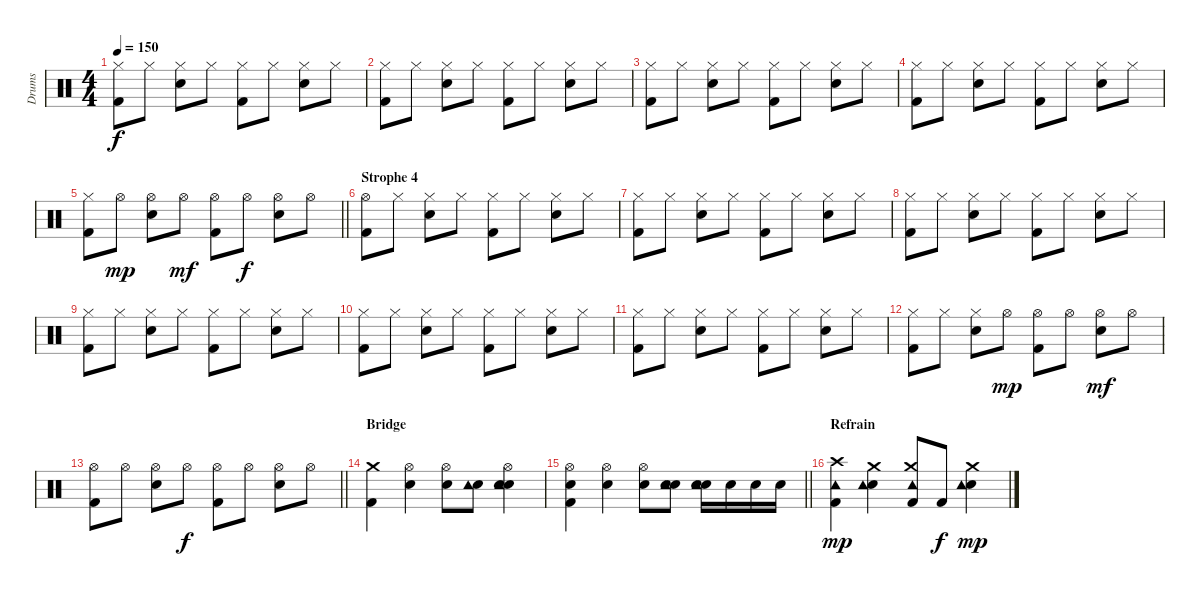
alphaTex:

\track ("Drums" "Drums") {instrument percussion}
\staff {score}
\articulation defaults
\ts (4 4)
\tempo 150
\clef neutral
\ks c
("Hi-Hat (closed)" "Kick (hit) 2").8{dy f} "Hi-Hat (closed)".8 ("Hi-Hat (closed)" "Snare (hit) 2").8 "Hi-Hat (closed)".8 ("Hi-Hat (closed)" "Kick (hit) 2").8 "Hi-Hat (closed)".8 ("Hi-Hat (closed)" "Snare (hit) 2").8 "Hi-Hat (closed)".8 |
("Hi-Hat (closed)" "Kick (hit) 2").8 "Hi-Hat (closed)".8 ("Hi-Hat (closed)" "Snare (hit) 2").8 "Hi-Hat (closed)".8 ("Hi-Hat (closed)" "Kick (hit) 2").8 "Hi-Hat (closed)".8 ("Hi-Hat (closed)" "Snare (hit) 2").8 "Hi-Hat (closed)".8 |
("Hi-Hat (closed)" "Kick (hit) 2").8 "Hi-Hat (closed)".8 ("Hi-Hat (closed)" "Snare (hit) 2").8 "Hi-Hat (closed)".8 ("Hi-Hat (closed)" "Kick (hit) 2").8 "Hi-Hat (closed)".8 ("Hi-Hat (closed)" "Snare (hit) 2").8 "Hi-Hat (closed)".8 |
("Hi-Hat (closed)" "Kick (hit) 2").8 "Hi-Hat (closed)".8 ("Hi-Hat (closed)" "Snare (hit) 2").8 "Hi-Hat (closed)".8 ("Hi-Hat (closed)" "Kick (hit) 2").8 "Hi-Hat (closed)".8 ("Hi-Hat (closed)" "Snare (hit) 2").8 "Hi-Hat (closed)".8 |
\barLineRight lightlight
("Hi-Hat (closed)" "Kick (hit) 2").8 "Hi-Hat (open)".8{dy mp} ("Hi-Hat (open)" "Snare (hit) 2").8 "Hi-Hat (open)".8{dy mf} ("Hi-Hat (open)" "Kick (hit) 2").8 "Hi-Hat (open)".8{dy f} ("Hi-Hat (open)" "Snare (hit) 2").8 "Hi-Hat (open)".8 |
\section ("" "Strophe 4")
("Hi-Hat (open)" "Kick (hit) 2").8 "Hi-Hat (closed)".8 ("Hi-Hat (closed)" "Snare (hit) 2").8 "Hi-Hat (closed)".8 ("Hi-Hat (closed)" "Kick (hit) 2").8 "Hi-Hat (closed)".8 ("Hi-Hat (closed)" "Snare (hit) 2").8 "Hi-Hat (closed)".8 |
("Hi-Hat (closed)" "Kick (hit) 2").8 "Hi-Hat (closed)".8 ("Hi-Hat (closed)" "Snare (hit) 2").8 "Hi-Hat (closed)".8 ("Hi-Hat (closed)" "Kick (hit) 2").8 "Hi-Hat (closed)".8 ("Hi-Hat (closed)" "Snare (hit) 2").8 "Hi-Hat (closed)".8 |
("Hi-Hat (closed)" "Kick (hit) 2").8 "Hi-Hat (closed)".8 ("Hi-Hat (closed)" "Snare (hit) 2").8 "Hi-Hat (closed)".8 ("Hi-Hat (closed)" "Kick (hit) 2").8 "Hi-Hat (closed)".8 ("Hi-Hat (closed)" "Snare (hit) 2").8 "Hi-Hat (closed)".8 |
("Hi-Hat (closed)" "Kick (hit) 2").8 "Hi-Hat (closed)".8 ("Hi-Hat (closed)" "Snare (hit) 2").8 "Hi-Hat (closed)".8 ("Hi-Hat (closed)" "Kick (hit) 2").8 "Hi-Hat (closed)".8 ("Hi-Hat (closed)" "Snare (hit) 2").8 "Hi-Hat (closed)".8 |
("Hi-Hat (closed)" "Kick (hit) 2").8 "Hi-Hat (closed)".8 ("Hi-Hat (closed)" "Snare (hit) 2").8 "Hi-Hat (closed)".8 ("Hi-Hat (closed)" "Kick (hit) 2").8 "Hi-Hat (closed)".8 ("Hi-Hat (closed)" "Snare (hit) 2").8 "Hi-Hat (closed)".8 |
("Hi-Hat (closed)" "Kick (hit) 2").8 "Hi-Hat (closed)".8 ("Hi-Hat (closed)" "Snare (hit) 2").8 "Hi-Hat (closed)".8 ("Hi-Hat (closed)" "Kick (hit) 2").8 "Hi-Hat (closed)".8 ("Hi-Hat (closed)" "Snare (hit) 2").8 "Hi-Hat (closed)".8 |
("Hi-Hat (closed)" "Kick (hit) 2").8 "Hi-Hat (closed)".8 ("Hi-Hat (closed)" "Snare (hit) 2").8 "Hi-Hat (open)".8{dy mp} ("Hi-Hat (open)" "Kick (hit) 2").8 "Hi-Hat (open)".8 ("Hi-Hat (open)" "Snare (hit) 2").8{dy mf} "Hi-Hat (open)".8 |
\barLineRight lightlight
("Hi-Hat (open)" "Kick (hit) 2").8 "Hi-Hat (open)".8 ("Hi-Hat (open)" "Snare (hit) 2").8 "Hi-Hat (open)".8{dy f} ("Hi-Hat (open)" "Kick (hit) 2").8 "Hi-Hat (open)".8 ("Hi-Hat (open)" "Snare (hit) 2").8 "Hi-Hat (open)".8 |
\section ("" "Bridge")
("Crash medium (hit)" "Kick (hit) 2").4 ("Hi-Hat (open)" "Snare (hit) 2").4 ("Hi-Hat (open)" "Snare (hit) 2").8 ("Hand Clap (hit)" "Tambourine (hit)").8 ("Hi-Hat (open)" "Snare (hit) 2" "Hand Clap (hit)" "Tambourine (hit)").4 |
\barLineRight lightlight
("Hi-Hat (open)" "Snare (hit) 2" "Kick (hit) 2").4 ("Hi-Hat (open)" "Snare (hit) 2").4 ("Hi-Hat (open)" "Snare (hit) 2").8 ("Snare (hit) 2" "Hand Clap (hit)" "Tambourine (hit)").8 ("Snare (hit) 2" "Hand Clap (hit)" "Tambourine (hit)").16 "Snare (hit) 2".16 "Snare (hit) 2".16 "Snare (hit) 2".16 |
\section ("" "Refrain")
("Crash high (hit)" "Kick (hit) 2" "Tambourine (hit)").4{dy mp} ("Crash medium (hit)" "Snare (hit) 2" "Tambourine (hit)").4 ("Crash medium (hit)" "Kick (hit) 2" "Tambourine (hit)").8 "Kick (hit) 2".8{dy f} ("Crash medium (hit)" "Snare (hit) 2" "Tambourine (hit)").4{dy mp}
